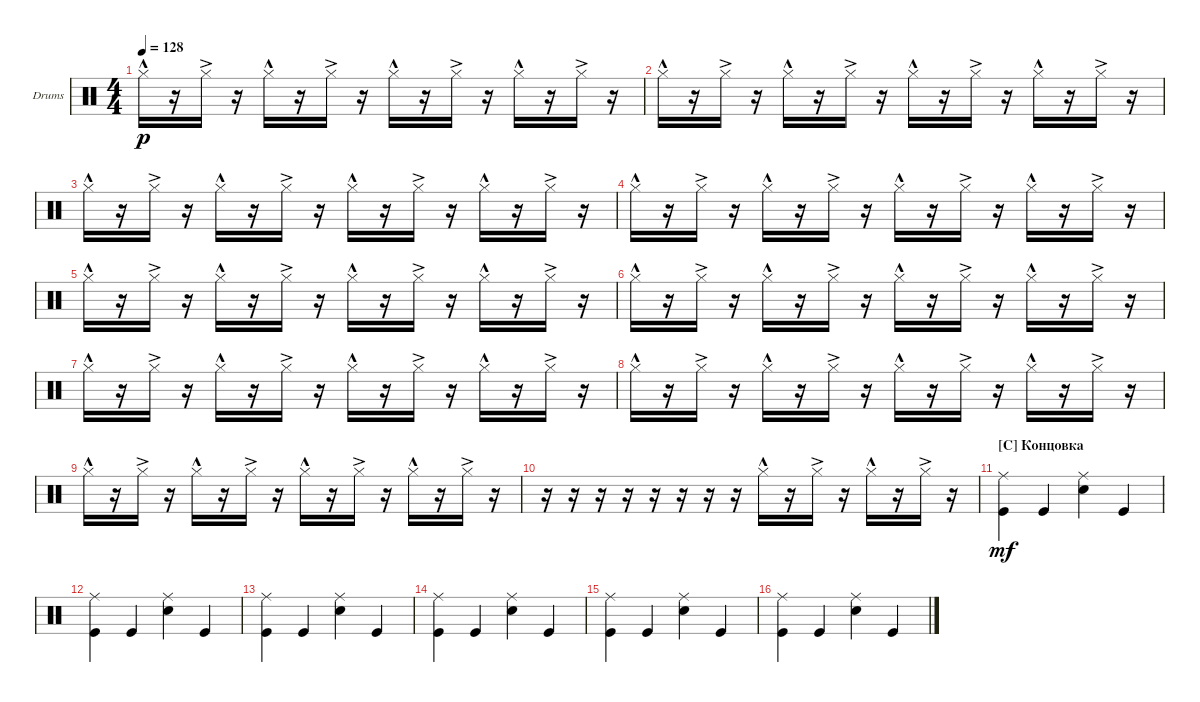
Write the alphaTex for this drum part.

\defaultSystemsLayout 4
\bracketExtendMode groupsimilarinstruments
\firstSystemTrackNameOrientation horizontal
\otherSystemsTrackNameOrientation horizontal
\track ("Drumkit" "Drums") {instrument percussion}
\staff {score}
\articulation defaults
\ts (4 4)
\tempo 128
\clef neutral
\ks c "Hi-Hat (closed)"{hac}.16{dy p}
r.16 "Hi-Hat (closed)"{ac}.16 r.16 "Hi-Hat (closed)"{hac}.16 r.16 "Hi-Hat (closed)"{ac}.16 r.16 "Hi-Hat (closed)"{hac}.16 r.16 "Hi-Hat (closed)"{ac}.16 r.16 "Hi-Hat (closed)"{hac}.16 r.16 "Hi-Hat (closed)"{ac}.16 r.16 |
"Hi-Hat (closed)"{hac}.16 r.16 "Hi-Hat (closed)"{ac}.16 r.16 "Hi-Hat (closed)"{hac}.16 r.16 "Hi-Hat (closed)"{ac}.16 r.16 "Hi-Hat (closed)"{hac}.16 r.16 "Hi-Hat (closed)"{ac}.16 r.16 "Hi-Hat (closed)"{hac}.16 r.16 "Hi-Hat (closed)"{ac}.16 r.16 |
"Hi-Hat (closed)"{hac}.16 r.16 "Hi-Hat (closed)"{ac}.16 r.16 "Hi-Hat (closed)"{hac}.16 r.16 "Hi-Hat (closed)"{ac}.16 r.16 "Hi-Hat (closed)"{hac}.16 r.16 "Hi-Hat (closed)"{ac}.16 r.16 "Hi-Hat (closed)"{hac}.16 r.16 "Hi-Hat (closed)"{ac}.16 r.16 |
"Hi-Hat (closed)"{hac}.16 r.16 "Hi-Hat (closed)"{ac}.16 r.16 "Hi-Hat (closed)"{hac}.16 r.16 "Hi-Hat (closed)"{ac}.16 r.16 "Hi-Hat (closed)"{hac}.16 r.16 "Hi-Hat (closed)"{ac}.16 r.16 "Hi-Hat (closed)"{hac}.16 r.16 "Hi-Hat (closed)"{ac}.16 r.16 |
"Hi-Hat (closed)"{hac}.16 r.16 "Hi-Hat (closed)"{ac}.16 r.16 "Hi-Hat (closed)"{hac}.16 r.16 "Hi-Hat (closed)"{ac}.16 r.16 "Hi-Hat (closed)"{hac}.16 r.16 "Hi-Hat (closed)"{ac}.16 r.16 "Hi-Hat (closed)"{hac}.16 r.16 "Hi-Hat (closed)"{ac}.16 r.16 |
"Hi-Hat (closed)"{hac}.16 r.16 "Hi-Hat (closed)"{ac}.16 r.16 "Hi-Hat (closed)"{hac}.16 r.16 "Hi-Hat (closed)"{ac}.16 r.16 "Hi-Hat (closed)"{hac}.16 r.16 "Hi-Hat (closed)"{ac}.16 r.16 "Hi-Hat (closed)"{hac}.16 r.16 "Hi-Hat (closed)"{ac}.16 r.16 |
"Hi-Hat (closed)"{hac}.16 r.16 "Hi-Hat (closed)"{ac}.16 r.16 "Hi-Hat (closed)"{hac}.16 r.16 "Hi-Hat (closed)"{ac}.16 r.16 "Hi-Hat (closed)"{hac}.16 r.16 "Hi-Hat (closed)"{ac}.16 r.16 "Hi-Hat (closed)"{hac}.16 r.16 "Hi-Hat (closed)"{ac}.16 r.16 |
"Hi-Hat (closed)"{hac}.16 r.16 "Hi-Hat (closed)"{ac}.16 r.16 "Hi-Hat (closed)"{hac}.16 r.16 "Hi-Hat (closed)"{ac}.16 r.16 "Hi-Hat (closed)"{hac}.16 r.16 "Hi-Hat (closed)"{ac}.16 r.16 "Hi-Hat (closed)"{hac}.16 r.16 "Hi-Hat (closed)"{ac}.16 r.16 |
"Hi-Hat (closed)"{hac}.16 r.16 "Hi-Hat (closed)"{ac}.16 r.16 "Hi-Hat (closed)"{hac}.16 r.16 "Hi-Hat (closed)"{ac}.16 r.16 "Hi-Hat (closed)"{hac}.16 r.16 "Hi-Hat (closed)"{ac}.16 r.16 "Hi-Hat (closed)"{hac}.16 r.16 "Hi-Hat (closed)"{ac}.16 r.16 |
r.16 r.16 r.16 r.16 r.16 r.16 r.16 r.16 "Hi-Hat (closed)"{hac}.16 r.16 "Hi-Hat (closed)"{ac}.16 r.16 "Hi-Hat (closed)"{hac}.16 r.16 "Hi-Hat (closed)"{ac}.16 r.16 |
\section ("C" "Концовка")
("Kick (hit)" "Ride (middle)").4{dy mf} "Kick (hit)".4 ("Snare (hit) 2" "Ride (middle)").4 "Kick (hit)".4 |
("Kick (hit)" "Ride (middle)").4 "Kick (hit)".4 ("Snare (hit) 2" "Ride (middle)").4 "Kick (hit)".4 |
("Kick (hit)" "Ride (middle)").4 "Kick (hit)".4 ("Snare (hit) 2" "Ride (middle)").4 "Kick (hit)".4 |
("Kick (hit)" "Ride (middle)").4 "Kick (hit)".4 ("Snare (hit) 2" "Ride (middle)").4 "Kick (hit)".4 |
("Kick (hit)" "Ride (middle)").4 "Kick (hit)".4 ("Snare (hit) 2" "Ride (middle)").4 "Kick (hit)".4 |
("Kick (hit)" "Ride (middle)").4 "Kick (hit)".4 ("Snare (hit) 2" "Ride (middle)").4 "Kick (hit)".4
